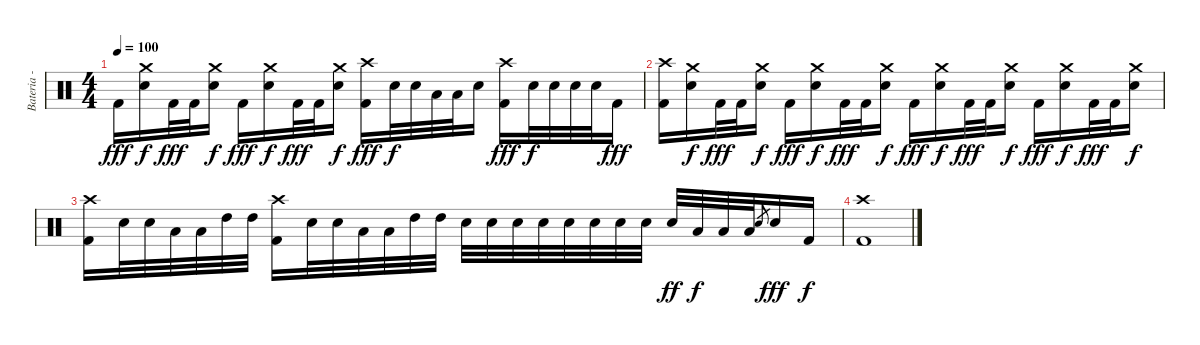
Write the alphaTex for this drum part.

\track ("Bateria - Drums" "Bateria - ") {instrument percussion}
\staff {score}
\articulation defaults
\ts (4 4)
\tempo 100
\clef neutral
\ks c "Kick (hit) 2".16{dy fff}
("Crash medium (hit)" "Electric Snare (hit)").16{dy f} "Kick (hit) 2".32{dy fff} "Kick (hit) 2".32 ("Crash medium (hit)" "Electric Snare (hit)").16{dy f} "Kick (hit) 2".16{dy fff} ("Crash medium (hit)" "Electric Snare (hit)").16{dy f} "Kick (hit) 2".32{dy fff} "Kick (hit) 2".32 ("Crash medium (hit)" "Electric Snare (hit)").16{dy f} ("Crash high (hit)" "Kick (hit) 2").16{dy fff} "Electric Snare (hit)".32{dy f} "Electric Snare (hit)".32 "Low Tom (hit)".32 "Low Tom (hit)".32 "Electric Snare (hit)".16 ("Crash high (hit)" "Kick (hit) 2").16{dy fff} "Electric Snare (hit)".32{dy f} "Electric Snare (hit)".32 "Electric Snare (hit)".32 "Electric Snare (hit)".32 "Kick (hit) 2".16{dy fff} |
("Crash high (hit)" "Kick (hit) 2").16 ("Crash medium (hit)" "Electric Snare (hit)").16{dy f} "Kick (hit) 2".32{dy fff} "Kick (hit) 2".32 ("Crash medium (hit)" "Electric Snare (hit)").16{dy f} "Kick (hit) 2".16{dy fff} ("Crash medium (hit)" "Electric Snare (hit)").16{dy f} "Kick (hit) 2".32{dy fff} "Kick (hit) 2".32 ("Crash medium (hit)" "Electric Snare (hit)").16{dy f} "Kick (hit) 2".16{dy fff} ("Crash medium (hit)" "Electric Snare (hit)").16{dy f} "Kick (hit) 2".32{dy fff} "Kick (hit) 2".32 ("Crash medium (hit)" "Electric Snare (hit)").16{dy f} "Kick (hit) 2".16{dy fff} ("Crash medium (hit)" "Electric Snare (hit)").16{dy f} "Kick (hit) 2".32{dy fff} "Kick (hit) 2".32 ("Crash medium (hit)" "Electric Snare (hit)").16{dy f} |
("Crash high (hit)" "Kick (hit) 2").16 "Electric Snare (hit)".32 "Electric Snare (hit)".32 "Low Tom (hit)".32 "Low Tom (hit)".32 "High Tom (hit)".32 "High Tom (hit)".32 ("Crash high (hit)" "Kick (hit) 2").16 "Electric Snare (hit)".32 "Electric Snare (hit)".32 "Low Tom (hit)".32 "Low Tom (hit)".32 "High Tom (hit)".32 "High Tom (hit)".32 "Electric Snare (hit)".32 "Electric Snare (hit)".32 "Electric Snare (hit)".32 "Electric Snare (hit)".32 "Electric Snare (hit)".32 "Electric Snare (hit)".32 "Electric Snare (hit)".32 "Electric Snare (hit)".32 "Electric Snare (hit)".32{dy ff} "Low Floor Tom (hit)".32{dy f} "Low Floor Tom (hit)".32 "Low Floor Tom (hit)".32 "Electric Snare (hit)".8{gr} "Electric Snare (hit)".16{dy fff} "Kick (hit) 2".16{dy f} |
("Crash high (hit)" "Kick (hit) 2").1
